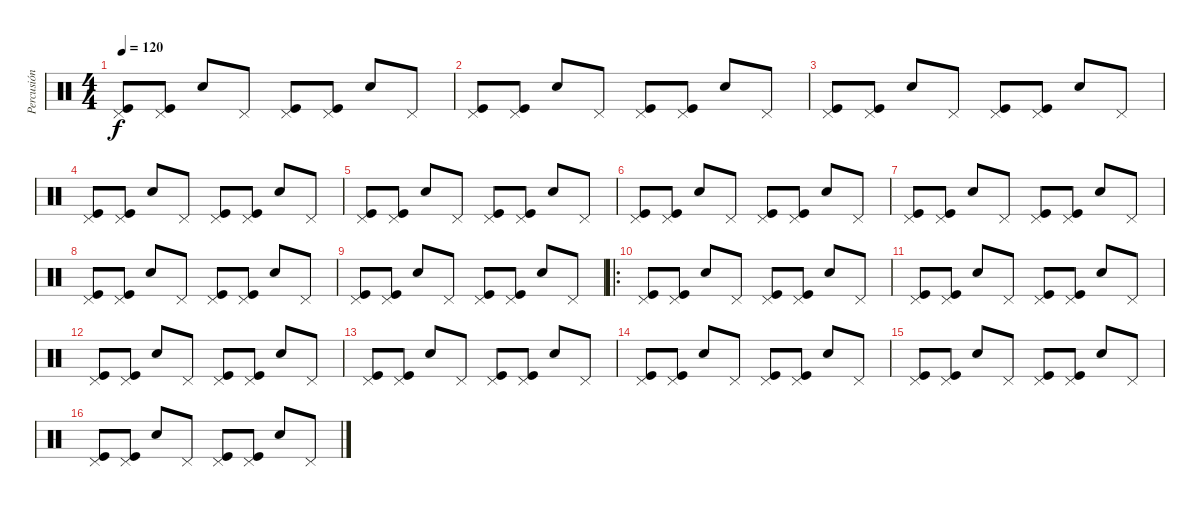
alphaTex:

\track ("Percusión" "Percusión") {instrument percussion}
\staff {score}
\articulation defaults
\ts (4 4)
\tempo 120
\clef neutral
\ks c
("Pedal Hi-Hat (hit)" "Kick (hit)").8{dy f} ("Pedal Hi-Hat (hit)" "Kick (hit)").8 "Electric Snare (hit)".8 "Pedal Hi-Hat (hit)".8 ("Pedal Hi-Hat (hit)" "Kick (hit)").8 ("Pedal Hi-Hat (hit)" "Kick (hit)").8 "Electric Snare (hit)".8 "Pedal Hi-Hat (hit)".8 |
("Pedal Hi-Hat (hit)" "Kick (hit)").8 ("Pedal Hi-Hat (hit)" "Kick (hit)").8 "Electric Snare (hit)".8 "Pedal Hi-Hat (hit)".8 ("Pedal Hi-Hat (hit)" "Kick (hit)").8 ("Pedal Hi-Hat (hit)" "Kick (hit)").8 "Electric Snare (hit)".8 "Pedal Hi-Hat (hit)".8 |
("Pedal Hi-Hat (hit)" "Kick (hit)").8 ("Pedal Hi-Hat (hit)" "Kick (hit)").8 "Electric Snare (hit)".8 "Pedal Hi-Hat (hit)".8 ("Pedal Hi-Hat (hit)" "Kick (hit)").8 ("Pedal Hi-Hat (hit)" "Kick (hit)").8 "Electric Snare (hit)".8 "Pedal Hi-Hat (hit)".8 |
("Pedal Hi-Hat (hit)" "Kick (hit)").8 ("Pedal Hi-Hat (hit)" "Kick (hit)").8 "Electric Snare (hit)".8 "Pedal Hi-Hat (hit)".8 ("Pedal Hi-Hat (hit)" "Kick (hit)").8 ("Pedal Hi-Hat (hit)" "Kick (hit)").8 "Electric Snare (hit)".8 "Pedal Hi-Hat (hit)".8 |
("Pedal Hi-Hat (hit)" "Kick (hit)").8 ("Pedal Hi-Hat (hit)" "Kick (hit)").8 "Electric Snare (hit)".8 "Pedal Hi-Hat (hit)".8 ("Pedal Hi-Hat (hit)" "Kick (hit)").8 ("Pedal Hi-Hat (hit)" "Kick (hit)").8 "Electric Snare (hit)".8 "Pedal Hi-Hat (hit)".8 |
("Pedal Hi-Hat (hit)" "Kick (hit)").8 ("Pedal Hi-Hat (hit)" "Kick (hit)").8 "Electric Snare (hit)".8 "Pedal Hi-Hat (hit)".8 ("Pedal Hi-Hat (hit)" "Kick (hit)").8 ("Pedal Hi-Hat (hit)" "Kick (hit)").8 "Electric Snare (hit)".8 "Pedal Hi-Hat (hit)".8 |
("Pedal Hi-Hat (hit)" "Kick (hit)").8 ("Pedal Hi-Hat (hit)" "Kick (hit)").8 "Electric Snare (hit)".8 "Pedal Hi-Hat (hit)".8 ("Pedal Hi-Hat (hit)" "Kick (hit)").8 ("Pedal Hi-Hat (hit)" "Kick (hit)").8 "Electric Snare (hit)".8 "Pedal Hi-Hat (hit)".8 |
("Pedal Hi-Hat (hit)" "Kick (hit)").8 ("Pedal Hi-Hat (hit)" "Kick (hit)").8 "Electric Snare (hit)".8 "Pedal Hi-Hat (hit)".8 ("Pedal Hi-Hat (hit)" "Kick (hit)").8 ("Pedal Hi-Hat (hit)" "Kick (hit)").8 "Electric Snare (hit)".8 "Pedal Hi-Hat (hit)".8 |
("Pedal Hi-Hat (hit)" "Kick (hit)").8 ("Pedal Hi-Hat (hit)" "Kick (hit)").8 "Electric Snare (hit)".8 "Pedal Hi-Hat (hit)".8 ("Pedal Hi-Hat (hit)" "Kick (hit)").8 ("Pedal Hi-Hat (hit)" "Kick (hit)").8 "Electric Snare (hit)".8 "Pedal Hi-Hat (hit)".8 |
\ro
("Pedal Hi-Hat (hit)" "Kick (hit)").8 ("Pedal Hi-Hat (hit)" "Kick (hit)").8 "Electric Snare (hit)".8 "Pedal Hi-Hat (hit)".8 ("Pedal Hi-Hat (hit)" "Kick (hit)").8 ("Pedal Hi-Hat (hit)" "Kick (hit)").8 "Electric Snare (hit)".8 "Pedal Hi-Hat (hit)".8 |
("Pedal Hi-Hat (hit)" "Kick (hit)").8 ("Pedal Hi-Hat (hit)" "Kick (hit)").8 "Electric Snare (hit)".8 "Pedal Hi-Hat (hit)".8 ("Pedal Hi-Hat (hit)" "Kick (hit)").8 ("Pedal Hi-Hat (hit)" "Kick (hit)").8 "Electric Snare (hit)".8 "Pedal Hi-Hat (hit)".8 |
("Pedal Hi-Hat (hit)" "Kick (hit)").8 ("Pedal Hi-Hat (hit)" "Kick (hit)").8 "Electric Snare (hit)".8 "Pedal Hi-Hat (hit)".8 ("Pedal Hi-Hat (hit)" "Kick (hit)").8 ("Pedal Hi-Hat (hit)" "Kick (hit)").8 "Electric Snare (hit)".8 "Pedal Hi-Hat (hit)".8 |
("Pedal Hi-Hat (hit)" "Kick (hit)").8 ("Pedal Hi-Hat (hit)" "Kick (hit)").8 "Electric Snare (hit)".8 "Pedal Hi-Hat (hit)".8 ("Pedal Hi-Hat (hit)" "Kick (hit)").8 ("Pedal Hi-Hat (hit)" "Kick (hit)").8 "Electric Snare (hit)".8 "Pedal Hi-Hat (hit)".8 |
("Pedal Hi-Hat (hit)" "Kick (hit)").8 ("Pedal Hi-Hat (hit)" "Kick (hit)").8 "Electric Snare (hit)".8 "Pedal Hi-Hat (hit)".8 ("Pedal Hi-Hat (hit)" "Kick (hit)").8 ("Pedal Hi-Hat (hit)" "Kick (hit)").8 "Electric Snare (hit)".8 "Pedal Hi-Hat (hit)".8 |
("Pedal Hi-Hat (hit)" "Kick (hit)").8 ("Pedal Hi-Hat (hit)" "Kick (hit)").8 "Electric Snare (hit)".8 "Pedal Hi-Hat (hit)".8 ("Pedal Hi-Hat (hit)" "Kick (hit)").8 ("Pedal Hi-Hat (hit)" "Kick (hit)").8 "Electric Snare (hit)".8 "Pedal Hi-Hat (hit)".8 |
("Pedal Hi-Hat (hit)" "Kick (hit)").8 ("Pedal Hi-Hat (hit)" "Kick (hit)").8 "Electric Snare (hit)".8 "Pedal Hi-Hat (hit)".8 ("Pedal Hi-Hat (hit)" "Kick (hit)").8 ("Pedal Hi-Hat (hit)" "Kick (hit)").8 "Electric Snare (hit)".8 "Pedal Hi-Hat (hit)".8
